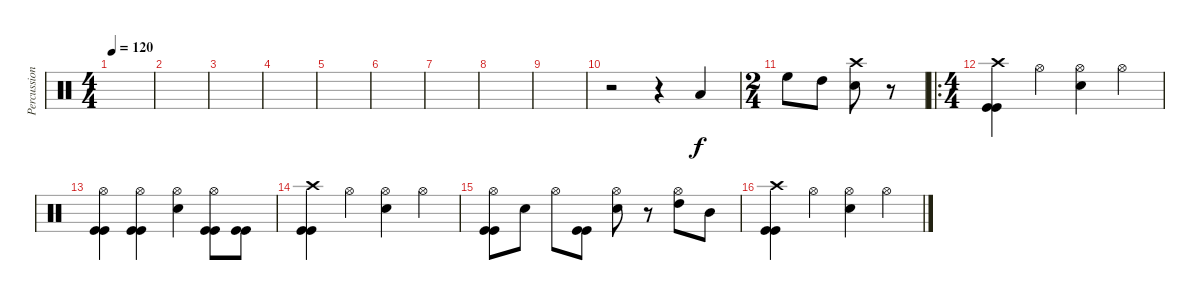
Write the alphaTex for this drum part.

\track ("Percussion" "Percussion") {instrument percussion}
\staff {score}
\articulation defaults
\ts (4 4)
\tempo 120
\clef neutral
\ks c
|
|
|
|
|
|
|
|
|
r.2 r.4 "Low Tom (hit)".4 |
\ts (2 4)
"High Floor Tom (hit)".8 "High Tom (hit)".8 ("Crash high (hit)" "Snare (hit) 2").8 r.8 |
\ro
\ts (4 4)
("Crash high (hit)" "Kick (hit)" "Kick (hit)").4 "Hi-Hat (open)".4 ("Hi-Hat (open)" "Snare (hit) 2").4 "Hi-Hat (open)".4 |
("Hi-Hat (open)" "Kick (hit)" "Kick (hit)").4 ("Hi-Hat (open)" "Kick (hit)" "Kick (hit)").4 ("Hi-Hat (open)" "Snare (hit) 2").4 ("Hi-Hat (open)" "Kick (hit)" "Kick (hit)").8 ("Kick (hit)" "Kick (hit)").8 |
("Crash high (hit)" "Kick (hit)" "Kick (hit)").4 "Hi-Hat (open)".4 ("Hi-Hat (open)" "Snare (hit) 2").4 "Hi-Hat (open)".4 |
("Hi-Hat (open)" "Kick (hit)" "Kick (hit)").8 "Snare (hit) 2".8 "Hi-Hat (open)".8 ("Kick (hit)" "Kick (hit)").8 ("Hi-Hat (open)" "Snare (hit) 2").8 r.8 ("Hi-Hat (open)" "High Tom (hit)").8 "Mid Tom (hit)".8 |
("Crash high (hit)" "Kick (hit)" "Kick (hit)").4 "Hi-Hat (open)".4 ("Hi-Hat (open)" "Snare (hit) 2").4 "Hi-Hat (open)".4
